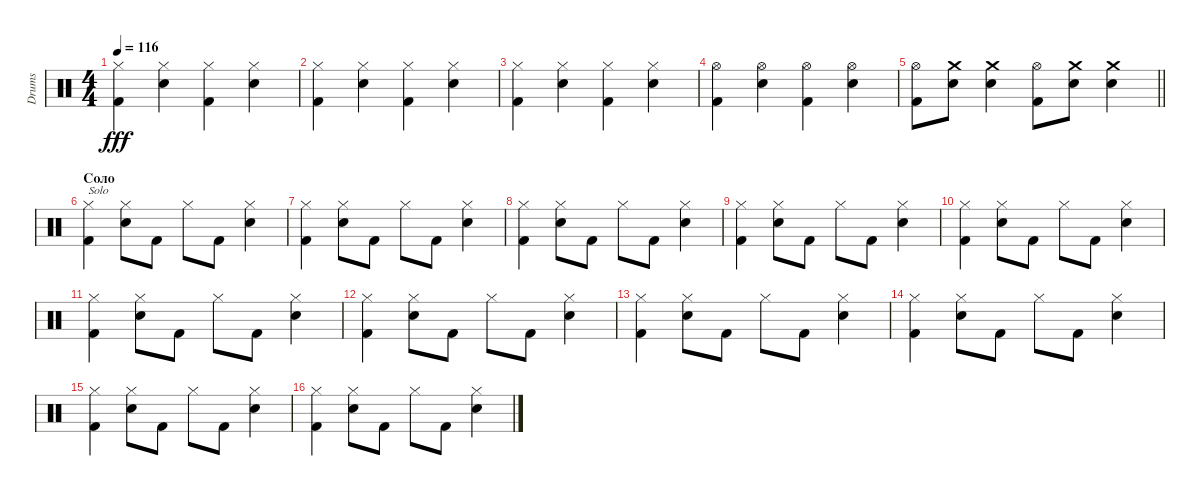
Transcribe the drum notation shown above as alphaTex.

\track ("Drums" "Drums") {instrument percussion}
\staff {score}
\articulation defaults
\ts (4 4)
\tempo 116
\clef neutral
\ks c
("Hi-Hat (closed)" "Kick (hit) 2").4{dy fff} ("Hi-Hat (closed)" "Snare (hit) 2").4 ("Hi-Hat (closed)" "Kick (hit) 2").4 ("Hi-Hat (closed)" "Snare (hit) 2").4 |
("Hi-Hat (closed)" "Kick (hit) 2").4 ("Hi-Hat (closed)" "Snare (hit) 2").4 ("Hi-Hat (closed)" "Kick (hit) 2").4 ("Hi-Hat (closed)" "Snare (hit) 2").4 |
("Hi-Hat (closed)" "Kick (hit) 2").4 ("Hi-Hat (closed)" "Snare (hit) 2").4 ("Hi-Hat (closed)" "Kick (hit) 2").4 ("Hi-Hat (closed)" "Snare (hit) 2").4 |
("Hi-Hat (open)" "Kick (hit) 2").4 ("Hi-Hat (open)" "Snare (hit) 2").4 ("Hi-Hat (open)" "Kick (hit) 2").4 ("Hi-Hat (open)" "Snare (hit) 2").4 |
\barLineRight lightlight
("Hi-Hat (open)" "Kick (hit) 2").8 ("Crash medium (hit)" "Snare (hit) 2").8 ("Crash medium (hit)" "Snare (hit) 2").4 ("Hi-Hat (open)" "Kick (hit) 2").8 ("Crash medium (hit)" "Snare (hit) 2").8 ("Crash medium (hit)" "Snare (hit) 2").4 |
\section ("" "Соло")
("Hi-Hat (closed)" "Kick (hit) 2").4{txt "Solo"} ("Hi-Hat (closed)" "Snare (hit) 2").8 "Kick (hit) 2".8 "Hi-Hat (closed)".8 "Kick (hit) 2".8 ("Hi-Hat (closed)" "Snare (hit) 2").4 |
("Hi-Hat (closed)" "Kick (hit) 2").4 ("Hi-Hat (closed)" "Snare (hit) 2").8 "Kick (hit) 2".8 "Hi-Hat (closed)".8 "Kick (hit) 2".8 ("Hi-Hat (closed)" "Snare (hit) 2").4 |
("Hi-Hat (closed)" "Kick (hit) 2").4 ("Hi-Hat (closed)" "Snare (hit) 2").8 "Kick (hit) 2".8 "Hi-Hat (closed)".8 "Kick (hit) 2".8 ("Hi-Hat (closed)" "Snare (hit) 2").4 |
("Hi-Hat (closed)" "Kick (hit) 2").4 ("Hi-Hat (closed)" "Snare (hit) 2").8 "Kick (hit) 2".8 "Hi-Hat (closed)".8 "Kick (hit) 2".8 ("Hi-Hat (closed)" "Snare (hit) 2").4 |
("Hi-Hat (closed)" "Kick (hit) 2").4 ("Hi-Hat (closed)" "Snare (hit) 2").8 "Kick (hit) 2".8 "Hi-Hat (closed)".8 "Kick (hit) 2".8 ("Hi-Hat (closed)" "Snare (hit) 2").4 |
("Hi-Hat (closed)" "Kick (hit) 2").4 ("Hi-Hat (closed)" "Snare (hit) 2").8 "Kick (hit) 2".8 "Hi-Hat (closed)".8 "Kick (hit) 2".8 ("Hi-Hat (closed)" "Snare (hit) 2").4 |
("Hi-Hat (closed)" "Kick (hit) 2").4 ("Hi-Hat (closed)" "Snare (hit) 2").8 "Kick (hit) 2".8 "Hi-Hat (closed)".8 "Kick (hit) 2".8 ("Hi-Hat (closed)" "Snare (hit) 2").4 |
("Hi-Hat (closed)" "Kick (hit) 2").4 ("Hi-Hat (closed)" "Snare (hit) 2").8 "Kick (hit) 2".8 "Hi-Hat (closed)".8 "Kick (hit) 2".8 ("Hi-Hat (closed)" "Snare (hit) 2").4 |
("Hi-Hat (closed)" "Kick (hit) 2").4 ("Hi-Hat (closed)" "Snare (hit) 2").8 "Kick (hit) 2".8 "Hi-Hat (closed)".8 "Kick (hit) 2".8 ("Hi-Hat (closed)" "Snare (hit) 2").4 |
("Hi-Hat (closed)" "Kick (hit) 2").4 ("Hi-Hat (closed)" "Snare (hit) 2").8 "Kick (hit) 2".8 "Hi-Hat (closed)".8 "Kick (hit) 2".8 ("Hi-Hat (closed)" "Snare (hit) 2").4 |
("Hi-Hat (closed)" "Kick (hit) 2").4 ("Hi-Hat (closed)" "Snare (hit) 2").8 "Kick (hit) 2".8 "Hi-Hat (closed)".8 "Kick (hit) 2".8 ("Hi-Hat (closed)" "Snare (hit) 2").4
